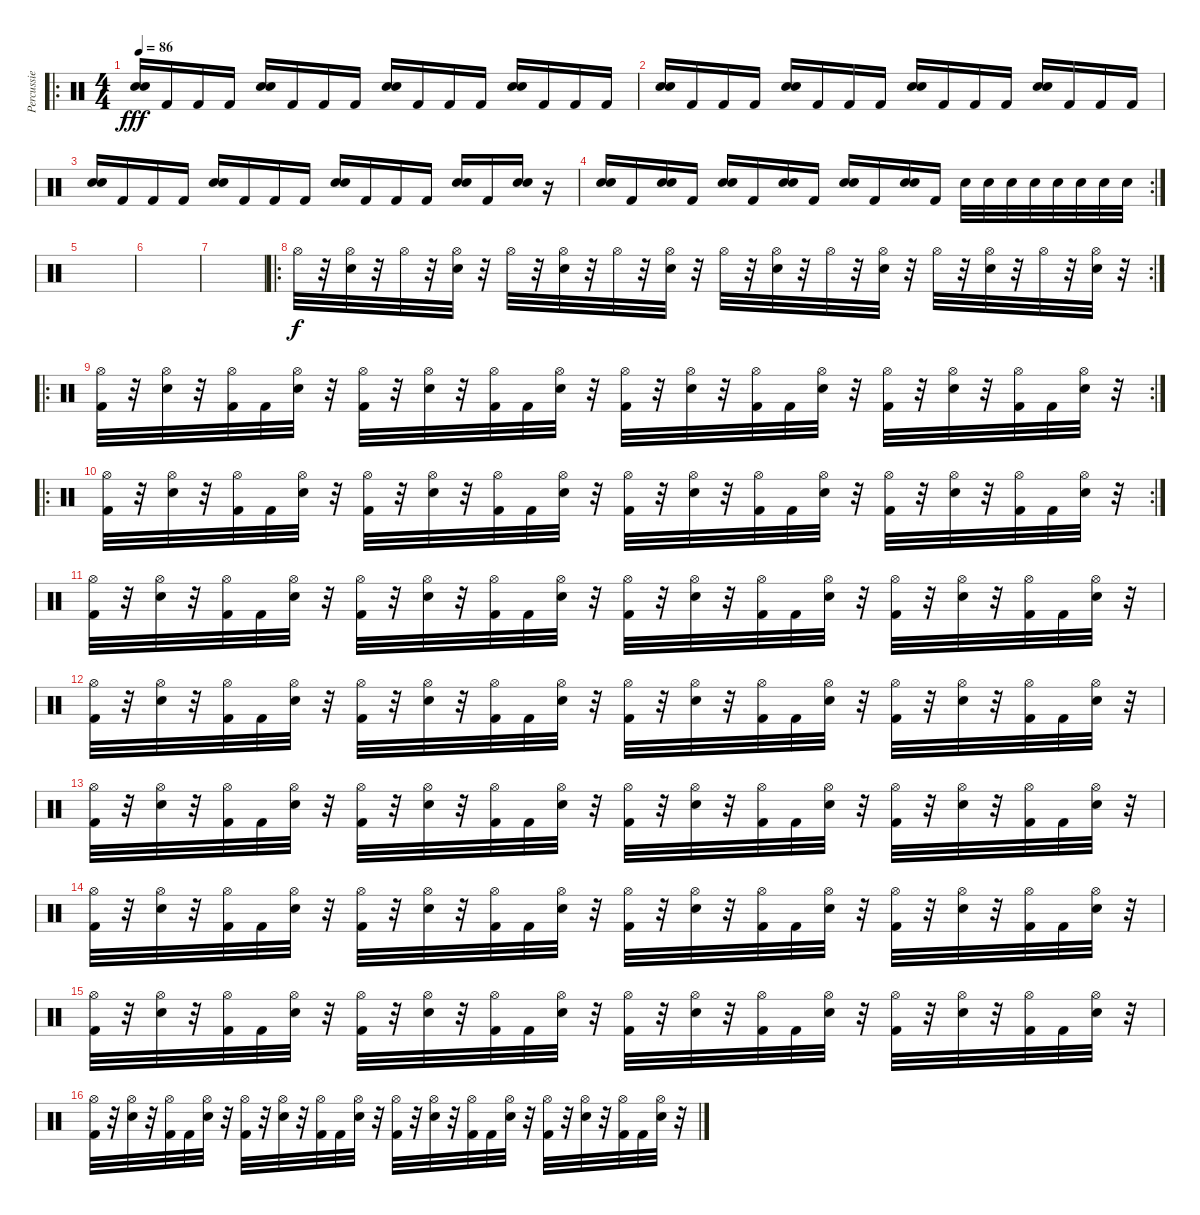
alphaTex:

\track ("Percussie" "Percussie") {instrument percussion}
\staff {score}
\articulation defaults
\ro
\ts (4 4)
\tempo 86
\clef neutral
\ks c
("Snare (hit) 2" "Snare (hit) 2").16{bd 480 dy fff} "Kick (hit) 2".16 "Kick (hit) 2".16 "Kick (hit) 2".16 ("Snare (hit) 2" "Snare (hit) 2").16{bd 480} "Kick (hit) 2".16 "Kick (hit) 2".16 "Kick (hit) 2".16 ("Snare (hit) 2" "Snare (hit) 2").16{bd 480} "Kick (hit) 2".16 "Kick (hit) 2".16 "Kick (hit) 2".16 ("Snare (hit) 2" "Snare (hit) 2").16{bd 480} "Kick (hit) 2".16 "Kick (hit) 2".16 "Kick (hit) 2".16 |
("Snare (hit) 2" "Snare (hit) 2").16{bd 480} "Kick (hit) 2".16 "Kick (hit) 2".16 "Kick (hit) 2".16 ("Snare (hit) 2" "Snare (hit) 2").16{bd 480} "Kick (hit) 2".16 "Kick (hit) 2".16 "Kick (hit) 2".16 ("Snare (hit) 2" "Snare (hit) 2").16{bd 480} "Kick (hit) 2".16 "Kick (hit) 2".16 "Kick (hit) 2".16 ("Snare (hit) 2" "Snare (hit) 2").16{bd 480} "Kick (hit) 2".16 "Kick (hit) 2".16 "Kick (hit) 2".16 |
("Snare (hit) 2" "Snare (hit) 2").16{bd 480} "Kick (hit) 2".16 "Kick (hit) 2".16 "Kick (hit) 2".16 ("Snare (hit) 2" "Snare (hit) 2").16{bd 480} "Kick (hit) 2".16 "Kick (hit) 2".16 "Kick (hit) 2".16 ("Snare (hit) 2" "Snare (hit) 2").16{bd 480} "Kick (hit) 2".16 "Kick (hit) 2".16 "Kick (hit) 2".16 ("Snare (hit) 2" "Snare (hit) 2").16{bd 480} "Kick (hit) 2".16 ("Snare (hit) 2" "Snare (hit) 2").16{bd 480} r.16 |
\rc 2
("Snare (hit) 2" "Snare (hit) 2").16{bd 480} "Kick (hit) 2".16 ("Snare (hit) 2" "Snare (hit) 2").16{bd 480} "Kick (hit) 2".16 ("Snare (hit) 2" "Snare (hit) 2").16{bd 480} "Kick (hit) 2".16 ("Snare (hit) 2" "Snare (hit) 2").16{bd 480} "Kick (hit) 2".16 ("Snare (hit) 2" "Snare (hit) 2").16{bd 480} "Kick (hit) 2".16 ("Snare (hit) 2" "Snare (hit) 2").16{bd 480} "Kick (hit) 2".16 "Snare (hit) 2".32 "Snare (hit) 2".32 "Snare (hit) 2".32 "Snare (hit) 2".32 "Snare (hit) 2".32 "Snare (hit) 2".32 "Snare (hit) 2".32 "Snare (hit) 2".32 |
|
|
|
\ro
\rc 2 "Hi-Hat (open)".32{dy f}
r.32 ("Hi-Hat (open)" "Electric Snare (hit)").32 r.32 "Hi-Hat (open)".32 r.32 ("Hi-Hat (open)" "Electric Snare (hit)").32 r.32 "Hi-Hat (open)".32 r.32 ("Hi-Hat (open)" "Electric Snare (hit)").32 r.32 "Hi-Hat (open)".32 r.32 ("Hi-Hat (open)" "Electric Snare (hit)").32 r.32 "Hi-Hat (open)".32 r.32 ("Hi-Hat (open)" "Electric Snare (hit)").32 r.32 "Hi-Hat (open)".32 r.32 ("Hi-Hat (open)" "Electric Snare (hit)").32 r.32 "Hi-Hat (open)".32 r.32 ("Hi-Hat (open)" "Electric Snare (hit)").32 r.32 "Hi-Hat (open)".32 r.32 ("Hi-Hat (open)" "Electric Snare (hit)").32 r.32 |
\ro
\rc 2
("Hi-Hat (open)" "Kick (hit) 2").32 r.32 ("Hi-Hat (open)" "Electric Snare (hit)").32 r.32 ("Hi-Hat (open)" "Kick (hit) 2").32 "Kick (hit) 2".32 ("Hi-Hat (open)" "Electric Snare (hit)").32 r.32 ("Hi-Hat (open)" "Kick (hit) 2").32 r.32 ("Hi-Hat (open)" "Electric Snare (hit)").32 r.32 ("Hi-Hat (open)" "Kick (hit) 2").32 "Kick (hit) 2".32 ("Hi-Hat (open)" "Electric Snare (hit)").32 r.32 ("Hi-Hat (open)" "Kick (hit) 2").32 r.32 ("Hi-Hat (open)" "Electric Snare (hit)").32 r.32 ("Hi-Hat (open)" "Kick (hit) 2").32 "Kick (hit) 2".32 ("Hi-Hat (open)" "Electric Snare (hit)").32 r.32 ("Hi-Hat (open)" "Kick (hit) 2").32 r.32 ("Hi-Hat (open)" "Electric Snare (hit)").32 r.32 ("Hi-Hat (open)" "Kick (hit) 2").32 "Kick (hit) 2".32 ("Hi-Hat (open)" "Electric Snare (hit)").32 r.32 |
\ro
\rc 2
("Hi-Hat (open)" "Kick (hit) 2").32 r.32 ("Hi-Hat (open)" "Electric Snare (hit)").32 r.32 ("Hi-Hat (open)" "Kick (hit) 2").32 "Kick (hit) 2".32 ("Hi-Hat (open)" "Electric Snare (hit)").32 r.32 ("Hi-Hat (open)" "Kick (hit) 2").32 r.32 ("Hi-Hat (open)" "Electric Snare (hit)").32 r.32 ("Hi-Hat (open)" "Kick (hit) 2").32 "Kick (hit) 2".32 ("Hi-Hat (open)" "Electric Snare (hit)").32 r.32 ("Hi-Hat (open)" "Kick (hit) 2").32 r.32 ("Hi-Hat (open)" "Electric Snare (hit)").32 r.32 ("Hi-Hat (open)" "Kick (hit) 2").32 "Kick (hit) 2".32 ("Hi-Hat (open)" "Electric Snare (hit)").32 r.32 ("Hi-Hat (open)" "Kick (hit) 2").32 r.32 ("Hi-Hat (open)" "Electric Snare (hit)").32 r.32 ("Hi-Hat (open)" "Kick (hit) 2").32 "Kick (hit) 2".32 ("Hi-Hat (open)" "Electric Snare (hit)").32 r.32 |
("Hi-Hat (open)" "Kick (hit) 2").32 r.32 ("Hi-Hat (open)" "Electric Snare (hit)").32 r.32 ("Hi-Hat (open)" "Kick (hit) 2").32 "Kick (hit) 2".32 ("Hi-Hat (open)" "Electric Snare (hit)").32 r.32 ("Hi-Hat (open)" "Kick (hit) 2").32 r.32 ("Hi-Hat (open)" "Electric Snare (hit)").32 r.32 ("Hi-Hat (open)" "Kick (hit) 2").32 "Kick (hit) 2".32 ("Hi-Hat (open)" "Electric Snare (hit)").32 r.32 ("Hi-Hat (open)" "Kick (hit) 2").32 r.32 ("Hi-Hat (open)" "Electric Snare (hit)").32 r.32 ("Hi-Hat (open)" "Kick (hit) 2").32 "Kick (hit) 2".32 ("Hi-Hat (open)" "Electric Snare (hit)").32 r.32 ("Hi-Hat (open)" "Kick (hit) 2").32 r.32 ("Hi-Hat (open)" "Electric Snare (hit)").32 r.32 ("Hi-Hat (open)" "Kick (hit) 2").32 "Kick (hit) 2".32 ("Hi-Hat (open)" "Electric Snare (hit)").32 r.32 |
("Hi-Hat (open)" "Kick (hit) 2").32 r.32 ("Hi-Hat (open)" "Electric Snare (hit)").32 r.32 ("Hi-Hat (open)" "Kick (hit) 2").32 "Kick (hit) 2".32 ("Hi-Hat (open)" "Electric Snare (hit)").32 r.32 ("Hi-Hat (open)" "Kick (hit) 2").32 r.32 ("Hi-Hat (open)" "Electric Snare (hit)").32 r.32 ("Hi-Hat (open)" "Kick (hit) 2").32 "Kick (hit) 2".32 ("Hi-Hat (open)" "Electric Snare (hit)").32 r.32 ("Hi-Hat (open)" "Kick (hit) 2").32 r.32 ("Hi-Hat (open)" "Electric Snare (hit)").32 r.32 ("Hi-Hat (open)" "Kick (hit) 2").32 "Kick (hit) 2".32 ("Hi-Hat (open)" "Electric Snare (hit)").32 r.32 ("Hi-Hat (open)" "Kick (hit) 2").32 r.32 ("Hi-Hat (open)" "Electric Snare (hit)").32 r.32 ("Hi-Hat (open)" "Kick (hit) 2").32 "Kick (hit) 2".32 ("Hi-Hat (open)" "Electric Snare (hit)").32 r.32 |
("Hi-Hat (open)" "Kick (hit) 2").32 r.32 ("Hi-Hat (open)" "Electric Snare (hit)").32 r.32 ("Hi-Hat (open)" "Kick (hit) 2").32 "Kick (hit) 2".32 ("Hi-Hat (open)" "Electric Snare (hit)").32 r.32 ("Hi-Hat (open)" "Kick (hit) 2").32 r.32 ("Hi-Hat (open)" "Electric Snare (hit)").32 r.32 ("Hi-Hat (open)" "Kick (hit) 2").32 "Kick (hit) 2".32 ("Hi-Hat (open)" "Electric Snare (hit)").32 r.32 ("Hi-Hat (open)" "Kick (hit) 2").32 r.32 ("Hi-Hat (open)" "Electric Snare (hit)").32 r.32 ("Hi-Hat (open)" "Kick (hit) 2").32 "Kick (hit) 2".32 ("Hi-Hat (open)" "Electric Snare (hit)").32 r.32 ("Hi-Hat (open)" "Kick (hit) 2").32 r.32 ("Hi-Hat (open)" "Electric Snare (hit)").32 r.32 ("Hi-Hat (open)" "Kick (hit) 2").32 "Kick (hit) 2".32 ("Hi-Hat (open)" "Electric Snare (hit)").32 r.32 |
("Hi-Hat (open)" "Kick (hit) 2").32 r.32 ("Hi-Hat (open)" "Electric Snare (hit)").32 r.32 ("Hi-Hat (open)" "Kick (hit) 2").32 "Kick (hit) 2".32 ("Hi-Hat (open)" "Electric Snare (hit)").32 r.32 ("Hi-Hat (open)" "Kick (hit) 2").32 r.32 ("Hi-Hat (open)" "Electric Snare (hit)").32 r.32 ("Hi-Hat (open)" "Kick (hit) 2").32 "Kick (hit) 2".32 ("Hi-Hat (open)" "Electric Snare (hit)").32 r.32 ("Hi-Hat (open)" "Kick (hit) 2").32 r.32 ("Hi-Hat (open)" "Electric Snare (hit)").32 r.32 ("Hi-Hat (open)" "Kick (hit) 2").32 "Kick (hit) 2".32 ("Hi-Hat (open)" "Electric Snare (hit)").32 r.32 ("Hi-Hat (open)" "Kick (hit) 2").32 r.32 ("Hi-Hat (open)" "Electric Snare (hit)").32 r.32 ("Hi-Hat (open)" "Kick (hit) 2").32 "Kick (hit) 2".32 ("Hi-Hat (open)" "Electric Snare (hit)").32 r.32 |
("Hi-Hat (open)" "Kick (hit) 2").32 r.32 ("Hi-Hat (open)" "Electric Snare (hit)").32 r.32 ("Hi-Hat (open)" "Kick (hit) 2").32 "Kick (hit) 2".32 ("Hi-Hat (open)" "Electric Snare (hit)").32 r.32 ("Hi-Hat (open)" "Kick (hit) 2").32 r.32 ("Hi-Hat (open)" "Electric Snare (hit)").32 r.32 ("Hi-Hat (open)" "Kick (hit) 2").32 "Kick (hit) 2".32 ("Hi-Hat (open)" "Electric Snare (hit)").32 r.32 ("Hi-Hat (open)" "Kick (hit) 2").32 r.32 ("Hi-Hat (open)" "Electric Snare (hit)").32 r.32 ("Hi-Hat (open)" "Kick (hit) 2").32 "Kick (hit) 2".32 ("Hi-Hat (open)" "Electric Snare (hit)").32 r.32 ("Hi-Hat (open)" "Kick (hit) 2").32 r.32 ("Hi-Hat (open)" "Electric Snare (hit)").32 r.32 ("Hi-Hat (open)" "Kick (hit) 2").32 "Kick (hit) 2".32 ("Hi-Hat (open)" "Electric Snare (hit)").32 r.32 |
("Hi-Hat (open)" "Kick (hit) 2").32 r.32 ("Hi-Hat (open)" "Electric Snare (hit)").32 r.32 ("Hi-Hat (open)" "Kick (hit) 2").32 "Kick (hit) 2".32 ("Hi-Hat (open)" "Electric Snare (hit)").32 r.32 ("Hi-Hat (open)" "Kick (hit) 2").32 r.32 ("Hi-Hat (open)" "Electric Snare (hit)").32 r.32 ("Hi-Hat (open)" "Kick (hit) 2").32 "Kick (hit) 2".32 ("Hi-Hat (open)" "Electric Snare (hit)").32 r.32 ("Hi-Hat (open)" "Kick (hit) 2").32 r.32 ("Hi-Hat (open)" "Electric Snare (hit)").32 r.32 ("Hi-Hat (open)" "Kick (hit) 2").32 "Kick (hit) 2".32 ("Hi-Hat (open)" "Electric Snare (hit)").32 r.32 ("Hi-Hat (open)" "Kick (hit) 2").32 r.32 ("Hi-Hat (open)" "Electric Snare (hit)").32 r.32 ("Hi-Hat (open)" "Kick (hit) 2").32 "Kick (hit) 2".32 ("Hi-Hat (open)" "Electric Snare (hit)").32 r.32
